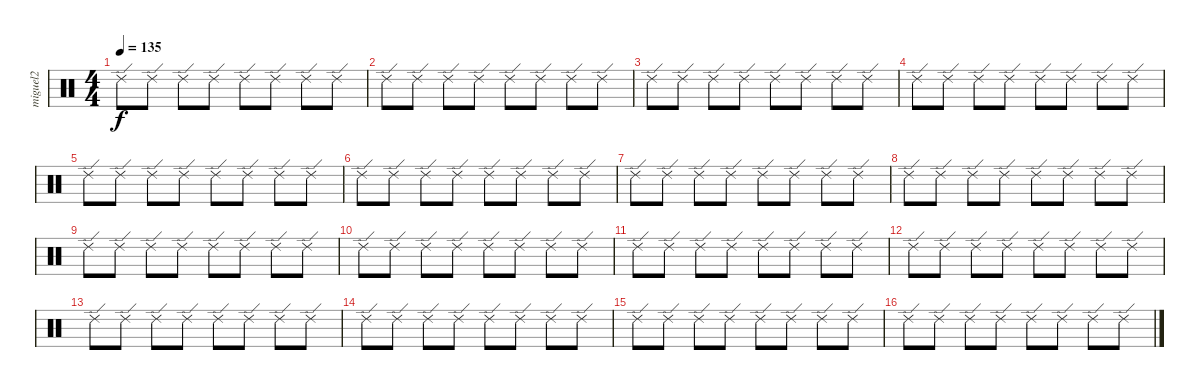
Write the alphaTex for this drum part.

\track ("miguel2" "miguel2") {instrument percussion}
\staff {score}
\articulation defaults
\ts (4 4)
\tempo 135
\clef neutral
\ks c "Ride (edge) 2".8{dy f} "Ride (edge) 2".8 "Ride (edge) 2".8 "Ride (edge) 2".8 "Ride (edge) 2".8 "Ride (edge) 2".8 "Ride (edge) 2".8 "Ride (edge) 2".8
|
"Ride (edge) 2".8 "Ride (edge) 2".8 "Ride (edge) 2".8 "Ride (edge) 2".8 "Ride (edge) 2".8 "Ride (edge) 2".8 "Ride (edge) 2".8 "Ride (edge) 2".8 |
"Ride (edge) 2".8 "Ride (edge) 2".8 "Ride (edge) 2".8 "Ride (edge) 2".8 "Ride (edge) 2".8 "Ride (edge) 2".8 "Ride (edge) 2".8 "Ride (edge) 2".8 |
"Ride (edge) 2".8 "Ride (edge) 2".8 "Ride (edge) 2".8 "Ride (edge) 2".8 "Ride (edge) 2".8 "Ride (edge) 2".8 "Ride (edge) 2".8 "Ride (edge) 2".8 |
"Ride (edge) 2".8 "Ride (edge) 2".8 "Ride (edge) 2".8 "Ride (edge) 2".8 "Ride (edge) 2".8 "Ride (edge) 2".8 "Ride (edge) 2".8 "Ride (edge) 2".8 |
"Ride (edge) 2".8 "Ride (edge) 2".8 "Ride (edge) 2".8 "Ride (edge) 2".8 "Ride (edge) 2".8 "Ride (edge) 2".8 "Ride (edge) 2".8 "Ride (edge) 2".8 |
"Ride (edge) 2".8 "Ride (edge) 2".8 "Ride (edge) 2".8 "Ride (edge) 2".8 "Ride (edge) 2".8 "Ride (edge) 2".8 "Ride (edge) 2".8 "Ride (edge) 2".8 |
"Ride (edge) 2".8 "Ride (edge) 2".8 "Ride (edge) 2".8 "Ride (edge) 2".8 "Ride (edge) 2".8 "Ride (edge) 2".8 "Ride (edge) 2".8 "Ride (edge) 2".8 |
"Ride (edge) 2".8 "Ride (edge) 2".8 "Ride (edge) 2".8 "Ride (edge) 2".8 "Ride (edge) 2".8 "Ride (edge) 2".8 "Ride (edge) 2".8 "Ride (edge) 2".8 |
"Ride (edge) 2".8 "Ride (edge) 2".8 "Ride (edge) 2".8 "Ride (edge) 2".8 "Ride (edge) 2".8 "Ride (edge) 2".8 "Ride (edge) 2".8 "Ride (edge) 2".8 |
"Ride (edge) 2".8 "Ride (edge) 2".8 "Ride (edge) 2".8 "Ride (edge) 2".8 "Ride (edge) 2".8 "Ride (edge) 2".8 "Ride (edge) 2".8 "Ride (edge) 2".8 |
"Ride (edge) 2".8 "Ride (edge) 2".8 "Ride (edge) 2".8 "Ride (edge) 2".8 "Ride (edge) 2".8 "Ride (edge) 2".8 "Ride (edge) 2".8 "Ride (edge) 2".8 |
"Ride (edge) 2".8 "Ride (edge) 2".8 "Ride (edge) 2".8 "Ride (edge) 2".8 "Ride (edge) 2".8 "Ride (edge) 2".8 "Ride (edge) 2".8 "Ride (edge) 2".8 |
"Ride (edge) 2".8 "Ride (edge) 2".8 "Ride (edge) 2".8 "Ride (edge) 2".8 "Ride (edge) 2".8 "Ride (edge) 2".8 "Ride (edge) 2".8 "Ride (edge) 2".8 |
"Ride (edge) 2".8 "Ride (edge) 2".8 "Ride (edge) 2".8 "Ride (edge) 2".8 "Ride (edge) 2".8 "Ride (edge) 2".8 "Ride (edge) 2".8 "Ride (edge) 2".8 |
"Ride (edge) 2".8 "Ride (edge) 2".8 "Ride (edge) 2".8 "Ride (edge) 2".8 "Ride (edge) 2".8 "Ride (edge) 2".8 "Ride (edge) 2".8 "Ride (edge) 2".8
